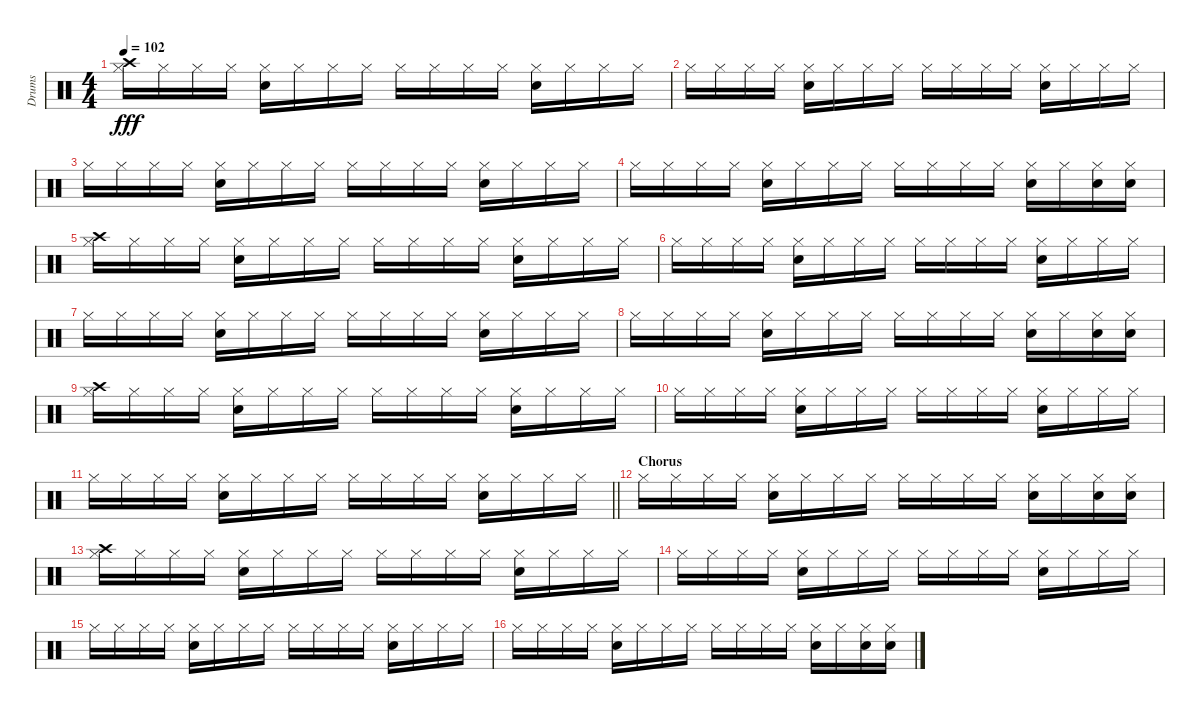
\track ("Drums" "Drums") {instrument percussion}
\staff {score}
\articulation defaults
\ts (4 4)
\tempo 102
\clef neutral
\ks c
("Hi-Hat (closed)" "Crash high (hit)").16{dy fff} "Hi-Hat (closed)".16 "Hi-Hat (closed)".16 "Hi-Hat (closed)".16 ("Hi-Hat (closed)" "Hand Clap (hit)").16 "Hi-Hat (closed)".16 "Hi-Hat (closed)".16 "Hi-Hat (closed)".16 "Hi-Hat (closed)".16 "Hi-Hat (closed)".16 "Hi-Hat (closed)".16 "Hi-Hat (closed)".16 ("Hi-Hat (closed)" "Hand Clap (hit)").16 "Hi-Hat (closed)".16 "Hi-Hat (closed)".16 "Hi-Hat (closed)".16 |
"Hi-Hat (closed)".16 "Hi-Hat (closed)".16 "Hi-Hat (closed)".16 "Hi-Hat (closed)".16 ("Hi-Hat (closed)" "Hand Clap (hit)").16 "Hi-Hat (closed)".16 "Hi-Hat (closed)".16 "Hi-Hat (closed)".16 "Hi-Hat (closed)".16 "Hi-Hat (closed)".16 "Hi-Hat (closed)".16 "Hi-Hat (closed)".16 ("Hi-Hat (closed)" "Hand Clap (hit)").16 "Hi-Hat (closed)".16 "Hi-Hat (closed)".16 "Hi-Hat (closed)".16 |
"Hi-Hat (closed)".16 "Hi-Hat (closed)".16 "Hi-Hat (closed)".16 "Hi-Hat (closed)".16 ("Hi-Hat (closed)" "Hand Clap (hit)").16 "Hi-Hat (closed)".16 "Hi-Hat (closed)".16 "Hi-Hat (closed)".16 "Hi-Hat (closed)".16 "Hi-Hat (closed)".16 "Hi-Hat (closed)".16 "Hi-Hat (closed)".16 ("Hi-Hat (closed)" "Hand Clap (hit)").16 "Hi-Hat (closed)".16 "Hi-Hat (closed)".16 "Hi-Hat (closed)".16 |
"Hi-Hat (closed)".16 "Hi-Hat (closed)".16 "Hi-Hat (closed)".16 "Hi-Hat (closed)".16 ("Hi-Hat (closed)" "Hand Clap (hit)").16 "Hi-Hat (closed)".16 "Hi-Hat (closed)".16 "Hi-Hat (closed)".16 "Hi-Hat (closed)".16 "Hi-Hat (closed)".16 "Hi-Hat (closed)".16 "Hi-Hat (closed)".16 ("Hi-Hat (closed)" "Hand Clap (hit)").16 "Hi-Hat (closed)".16 ("Hi-Hat (closed)" "Hand Clap (hit)").16 ("Hi-Hat (closed)" "Hand Clap (hit)").16 |
("Hi-Hat (closed)" "Crash high (hit)").16 "Hi-Hat (closed)".16 "Hi-Hat (closed)".16 "Hi-Hat (closed)".16 ("Hi-Hat (closed)" "Hand Clap (hit)").16 "Hi-Hat (closed)".16 "Hi-Hat (closed)".16 "Hi-Hat (closed)".16 "Hi-Hat (closed)".16 "Hi-Hat (closed)".16 "Hi-Hat (closed)".16 "Hi-Hat (closed)".16 ("Hi-Hat (closed)" "Hand Clap (hit)").16 "Hi-Hat (closed)".16 "Hi-Hat (closed)".16 "Hi-Hat (closed)".16 |
"Hi-Hat (closed)".16 "Hi-Hat (closed)".16 "Hi-Hat (closed)".16 "Hi-Hat (closed)".16 ("Hi-Hat (closed)" "Hand Clap (hit)").16 "Hi-Hat (closed)".16 "Hi-Hat (closed)".16 "Hi-Hat (closed)".16 "Hi-Hat (closed)".16 "Hi-Hat (closed)".16 "Hi-Hat (closed)".16 "Hi-Hat (closed)".16 ("Hi-Hat (closed)" "Hand Clap (hit)").16 "Hi-Hat (closed)".16 "Hi-Hat (closed)".16 "Hi-Hat (closed)".16 |
"Hi-Hat (closed)".16 "Hi-Hat (closed)".16 "Hi-Hat (closed)".16 "Hi-Hat (closed)".16 ("Hi-Hat (closed)" "Hand Clap (hit)").16 "Hi-Hat (closed)".16 "Hi-Hat (closed)".16 "Hi-Hat (closed)".16 "Hi-Hat (closed)".16 "Hi-Hat (closed)".16 "Hi-Hat (closed)".16 "Hi-Hat (closed)".16 ("Hi-Hat (closed)" "Hand Clap (hit)").16 "Hi-Hat (closed)".16 "Hi-Hat (closed)".16 "Hi-Hat (closed)".16 |
"Hi-Hat (closed)".16 "Hi-Hat (closed)".16 "Hi-Hat (closed)".16 "Hi-Hat (closed)".16 ("Hi-Hat (closed)" "Hand Clap (hit)").16 "Hi-Hat (closed)".16 "Hi-Hat (closed)".16 "Hi-Hat (closed)".16 "Hi-Hat (closed)".16 "Hi-Hat (closed)".16 "Hi-Hat (closed)".16 "Hi-Hat (closed)".16 ("Hi-Hat (closed)" "Hand Clap (hit)").16 "Hi-Hat (closed)".16 ("Hi-Hat (closed)" "Hand Clap (hit)").16 ("Hi-Hat (closed)" "Hand Clap (hit)").16 |
("Hi-Hat (closed)" "Crash high (hit)").16 "Hi-Hat (closed)".16 "Hi-Hat (closed)".16 "Hi-Hat (closed)".16 ("Hi-Hat (closed)" "Hand Clap (hit)").16 "Hi-Hat (closed)".16 "Hi-Hat (closed)".16 "Hi-Hat (closed)".16 "Hi-Hat (closed)".16 "Hi-Hat (closed)".16 "Hi-Hat (closed)".16 "Hi-Hat (closed)".16 ("Hi-Hat (closed)" "Hand Clap (hit)").16 "Hi-Hat (closed)".16 "Hi-Hat (closed)".16 "Hi-Hat (closed)".16 |
"Hi-Hat (closed)".16 "Hi-Hat (closed)".16 "Hi-Hat (closed)".16 "Hi-Hat (closed)".16 ("Hi-Hat (closed)" "Hand Clap (hit)").16 "Hi-Hat (closed)".16 "Hi-Hat (closed)".16 "Hi-Hat (closed)".16 "Hi-Hat (closed)".16 "Hi-Hat (closed)".16 "Hi-Hat (closed)".16 "Hi-Hat (closed)".16 ("Hi-Hat (closed)" "Hand Clap (hit)").16 "Hi-Hat (closed)".16 "Hi-Hat (closed)".16 "Hi-Hat (closed)".16 |
\barLineRight lightlight "Hi-Hat (closed)".16 "Hi-Hat (closed)".16 "Hi-Hat (closed)".16 "Hi-Hat (closed)".16
("Hi-Hat (closed)" "Hand Clap (hit)").16 "Hi-Hat (closed)".16 "Hi-Hat (closed)".16 "Hi-Hat (closed)".16 "Hi-Hat (closed)".16 "Hi-Hat (closed)".16 "Hi-Hat (closed)".16 "Hi-Hat (closed)".16 ("Hi-Hat (closed)" "Hand Clap (hit)").16 "Hi-Hat (closed)".16 "Hi-Hat (closed)".16 "Hi-Hat (closed)".16 |
\section ("" "Chorus")
"Hi-Hat (closed)".16 "Hi-Hat (closed)".16 "Hi-Hat (closed)".16 "Hi-Hat (closed)".16 ("Hi-Hat (closed)" "Hand Clap (hit)").16 "Hi-Hat (closed)".16 "Hi-Hat (closed)".16 "Hi-Hat (closed)".16 "Hi-Hat (closed)".16 "Hi-Hat (closed)".16 "Hi-Hat (closed)".16 "Hi-Hat (closed)".16 ("Hi-Hat (closed)" "Hand Clap (hit)").16 "Hi-Hat (closed)".16 ("Hi-Hat (closed)" "Hand Clap (hit)").16 ("Hi-Hat (closed)" "Hand Clap (hit)").16 |
("Hi-Hat (closed)" "Crash high (hit)").16 "Hi-Hat (closed)".16 "Hi-Hat (closed)".16 "Hi-Hat (closed)".16 ("Hi-Hat (closed)" "Hand Clap (hit)").16 "Hi-Hat (closed)".16 "Hi-Hat (closed)".16 "Hi-Hat (closed)".16 "Hi-Hat (closed)".16 "Hi-Hat (closed)".16 "Hi-Hat (closed)".16 "Hi-Hat (closed)".16 ("Hi-Hat (closed)" "Hand Clap (hit)").16 "Hi-Hat (closed)".16 "Hi-Hat (closed)".16 "Hi-Hat (closed)".16 |
"Hi-Hat (closed)".16 "Hi-Hat (closed)".16 "Hi-Hat (closed)".16 "Hi-Hat (closed)".16 ("Hi-Hat (closed)" "Hand Clap (hit)").16 "Hi-Hat (closed)".16 "Hi-Hat (closed)".16 "Hi-Hat (closed)".16 "Hi-Hat (closed)".16 "Hi-Hat (closed)".16 "Hi-Hat (closed)".16 "Hi-Hat (closed)".16 ("Hi-Hat (closed)" "Hand Clap (hit)").16 "Hi-Hat (closed)".16 "Hi-Hat (closed)".16 "Hi-Hat (closed)".16 |
"Hi-Hat (closed)".16 "Hi-Hat (closed)".16 "Hi-Hat (closed)".16 "Hi-Hat (closed)".16 ("Hi-Hat (closed)" "Hand Clap (hit)").16 "Hi-Hat (closed)".16 "Hi-Hat (closed)".16 "Hi-Hat (closed)".16 "Hi-Hat (closed)".16 "Hi-Hat (closed)".16 "Hi-Hat (closed)".16 "Hi-Hat (closed)".16 ("Hi-Hat (closed)" "Hand Clap (hit)").16 "Hi-Hat (closed)".16 "Hi-Hat (closed)".16 "Hi-Hat (closed)".16 |
"Hi-Hat (closed)".16 "Hi-Hat (closed)".16 "Hi-Hat (closed)".16 "Hi-Hat (closed)".16 ("Hi-Hat (closed)" "Hand Clap (hit)").16 "Hi-Hat (closed)".16 "Hi-Hat (closed)".16 "Hi-Hat (closed)".16 "Hi-Hat (closed)".16 "Hi-Hat (closed)".16 "Hi-Hat (closed)".16 "Hi-Hat (closed)".16 ("Hi-Hat (closed)" "Hand Clap (hit)").16 "Hi-Hat (closed)".16 ("Hi-Hat (closed)" "Hand Clap (hit)").16 ("Hi-Hat (closed)" "Hand Clap (hit)").16
